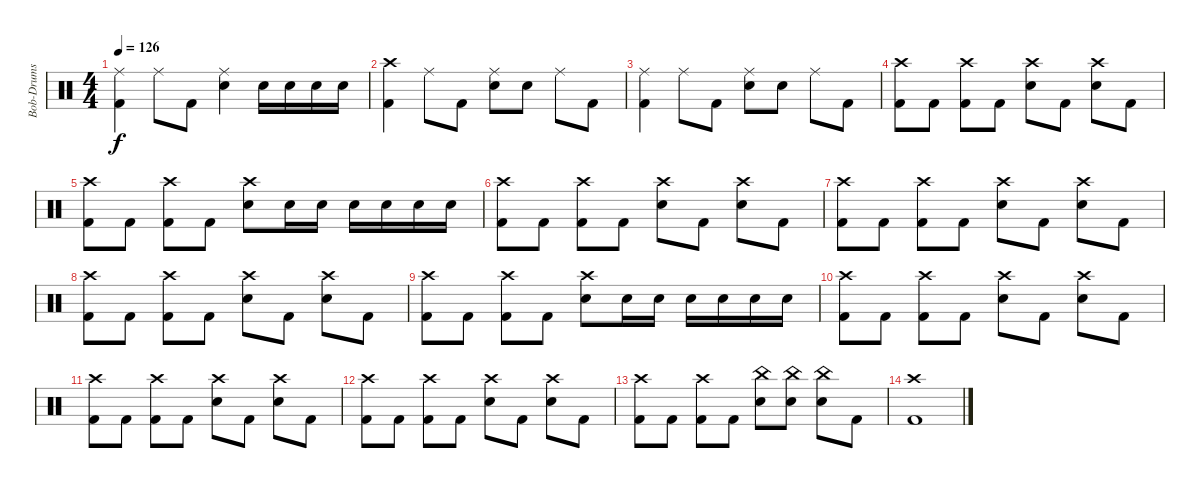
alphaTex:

\track ("Bob-Drums" "Bob-Drums") {instrument percussion}
\staff {score}
\articulation defaults
\ts (4 4)
\tempo 126
\clef neutral
\ks c
("Ride (middle)" "Kick (hit) 2").4{dy f} "Ride (middle)".8 "Kick (hit) 2".8 ("Ride (middle)" "Snare (hit) 2").4 "Snare (hit) 2".16 "Snare (hit) 2".16 "Snare (hit) 2".16 "Snare (hit) 2".16 |
("Crash high (hit)" "Kick (hit) 2").4 "Ride (middle)".8 "Kick (hit) 2".8 ("Ride (middle)" "Snare (hit) 2").8 "Snare (hit) 2".8 "Ride (middle)".8 "Kick (hit) 2".8 |
("Ride (middle)" "Kick (hit) 2").4 "Ride (middle)".8 "Kick (hit) 2".8 ("Ride (middle)" "Snare (hit) 2").8 "Snare (hit) 2".8 "Ride (middle)".8 "Kick (hit) 2".8 |
("Crash high (hit)" "Kick (hit) 2").8 "Kick (hit) 2".8 ("Crash high (hit)" "Kick (hit) 2").8 "Kick (hit) 2".8 ("Crash high (hit)" "Snare (hit) 2").8 "Kick (hit) 2".8 ("Crash high (hit)" "Snare (hit) 2").8 "Kick (hit) 2".8 |
("Crash high (hit)" "Kick (hit) 2").8 "Kick (hit) 2".8 ("Crash high (hit)" "Kick (hit) 2").8 "Kick (hit) 2".8 ("Crash high (hit)" "Snare (hit) 2").8 "Snare (hit) 2".16 "Snare (hit) 2".16 "Snare (hit) 2".16 "Snare (hit) 2".16 "Snare (hit) 2".16 "Snare (hit) 2".16 |
("Crash high (hit)" "Kick (hit) 2").8 "Kick (hit) 2".8 ("Crash high (hit)" "Kick (hit) 2").8 "Kick (hit) 2".8 ("Crash high (hit)" "Snare (hit) 2").8 "Kick (hit) 2".8 ("Crash high (hit)" "Snare (hit) 2").8 "Kick (hit) 2".8 |
("Crash high (hit)" "Kick (hit) 2").8 "Kick (hit) 2".8 ("Crash high (hit)" "Kick (hit) 2").8 "Kick (hit) 2".8 ("Crash high (hit)" "Snare (hit) 2").8 "Kick (hit) 2".8 ("Crash high (hit)" "Snare (hit) 2").8 "Kick (hit) 2".8 |
("Crash high (hit)" "Kick (hit) 2").8 "Kick (hit) 2".8 ("Crash high (hit)" "Kick (hit) 2").8 "Kick (hit) 2".8 ("Crash high (hit)" "Snare (hit) 2").8 "Kick (hit) 2".8 ("Crash high (hit)" "Snare (hit) 2").8 "Kick (hit) 2".8 |
("Crash high (hit)" "Kick (hit) 2").8 "Kick (hit) 2".8 ("Crash high (hit)" "Kick (hit) 2").8 "Kick (hit) 2".8 ("Crash high (hit)" "Snare (hit) 2").8 "Snare (hit) 2".16 "Snare (hit) 2".16 "Snare (hit) 2".16 "Snare (hit) 2".16 "Snare (hit) 2".16 "Snare (hit) 2".16 |
("Crash high (hit)" "Kick (hit) 2").8 "Kick (hit) 2".8 ("Crash high (hit)" "Kick (hit) 2").8 "Kick (hit) 2".8 ("Crash high (hit)" "Snare (hit) 2").8 "Kick (hit) 2".8 ("Crash high (hit)" "Snare (hit) 2").8 "Kick (hit) 2".8 |
("Crash high (hit)" "Kick (hit) 2").8 "Kick (hit) 2".8 ("Crash high (hit)" "Kick (hit) 2").8 "Kick (hit) 2".8 ("Crash high (hit)" "Snare (hit) 2").8 "Kick (hit) 2".8 ("Crash high (hit)" "Snare (hit) 2").8 "Kick (hit) 2".8 |
("Crash high (hit)" "Kick (hit) 2").8 "Kick (hit) 2".8 ("Crash high (hit)" "Kick (hit) 2").8 "Kick (hit) 2".8 ("Crash high (hit)" "Snare (hit) 2").8 "Kick (hit) 2".8 ("Crash high (hit)" "Snare (hit) 2").8 "Kick (hit) 2".8 |
("Crash high (hit)" "Kick (hit) 2").8 "Kick (hit) 2".8 ("Crash high (hit)" "Kick (hit) 2").8 "Kick (hit) 2".8 ("China (hit)" "Snare (hit) 2").8 ("China (hit)" "Snare (hit) 2").8 ("China (hit)" "Snare (hit) 2").8 "Kick (hit) 2".8 |
("Crash high (hit)" "Kick (hit) 2").1
